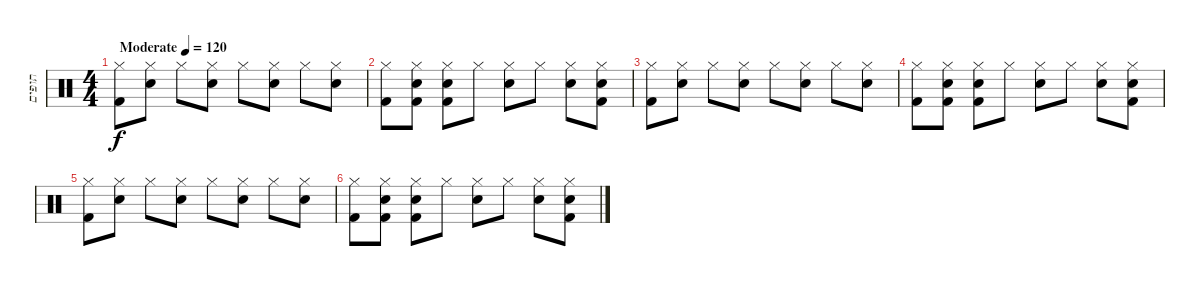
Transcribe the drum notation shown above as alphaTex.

\track ("תופים" "תופים") {instrument percussion}
\staff {score}
\articulation defaults
\ts (4 4)
\tempo (120 "Moderate")
\clef neutral
\ks c
("Kick (hit) 2" "Hi-Hat (closed)").8{dy f} ("Electric Snare (hit)" "Hi-Hat (closed)").8 "Hi-Hat (closed)".8 ("Electric Snare (hit)" "Hi-Hat (closed)").8 "Hi-Hat (closed)".8 ("Electric Snare (hit)" "Hi-Hat (closed)").8 "Hi-Hat (closed)".8 ("Electric Snare (hit)" "Hi-Hat (closed)").8 |
("Kick (hit) 2" "Hi-Hat (closed)").8 ("Electric Snare (hit)" "Kick (hit) 2" "Hi-Hat (closed)").8 ("Electric Snare (hit)" "Kick (hit) 2" "Hi-Hat (closed)").8 "Hi-Hat (closed)".8 ("Electric Snare (hit)" "Hi-Hat (closed)").8 "Hi-Hat (closed)".8 ("Electric Snare (hit)" "Hi-Hat (closed)").8 ("Electric Snare (hit)" "Kick (hit) 2" "Hi-Hat (closed)").8 |
("Kick (hit) 2" "Hi-Hat (closed)").8 ("Electric Snare (hit)" "Hi-Hat (closed)").8 "Hi-Hat (closed)".8 ("Electric Snare (hit)" "Hi-Hat (closed)").8 "Hi-Hat (closed)".8 ("Electric Snare (hit)" "Hi-Hat (closed)").8 "Hi-Hat (closed)".8 ("Electric Snare (hit)" "Hi-Hat (closed)").8 |
("Kick (hit) 2" "Hi-Hat (closed)").8 ("Electric Snare (hit)" "Kick (hit) 2" "Hi-Hat (closed)").8 ("Electric Snare (hit)" "Kick (hit) 2" "Hi-Hat (closed)").8 "Hi-Hat (closed)".8 ("Electric Snare (hit)" "Hi-Hat (closed)").8 "Hi-Hat (closed)".8 ("Electric Snare (hit)" "Hi-Hat (closed)").8 ("Electric Snare (hit)" "Kick (hit) 2" "Hi-Hat (closed)").8 |
("Kick (hit) 2" "Hi-Hat (closed)").8 ("Electric Snare (hit)" "Hi-Hat (closed)").8 "Hi-Hat (closed)".8 ("Electric Snare (hit)" "Hi-Hat (closed)").8 "Hi-Hat (closed)".8 ("Electric Snare (hit)" "Hi-Hat (closed)").8 "Hi-Hat (closed)".8 ("Electric Snare (hit)" "Hi-Hat (closed)").8 |
("Kick (hit) 2" "Hi-Hat (closed)").8 ("Electric Snare (hit)" "Kick (hit) 2" "Hi-Hat (closed)").8 ("Electric Snare (hit)" "Kick (hit) 2" "Hi-Hat (closed)").8 "Hi-Hat (closed)".8 ("Electric Snare (hit)" "Hi-Hat (closed)").8 "Hi-Hat (closed)".8 ("Electric Snare (hit)" "Hi-Hat (closed)").8 ("Electric Snare (hit)" "Kick (hit) 2" "Hi-Hat (closed)").8
